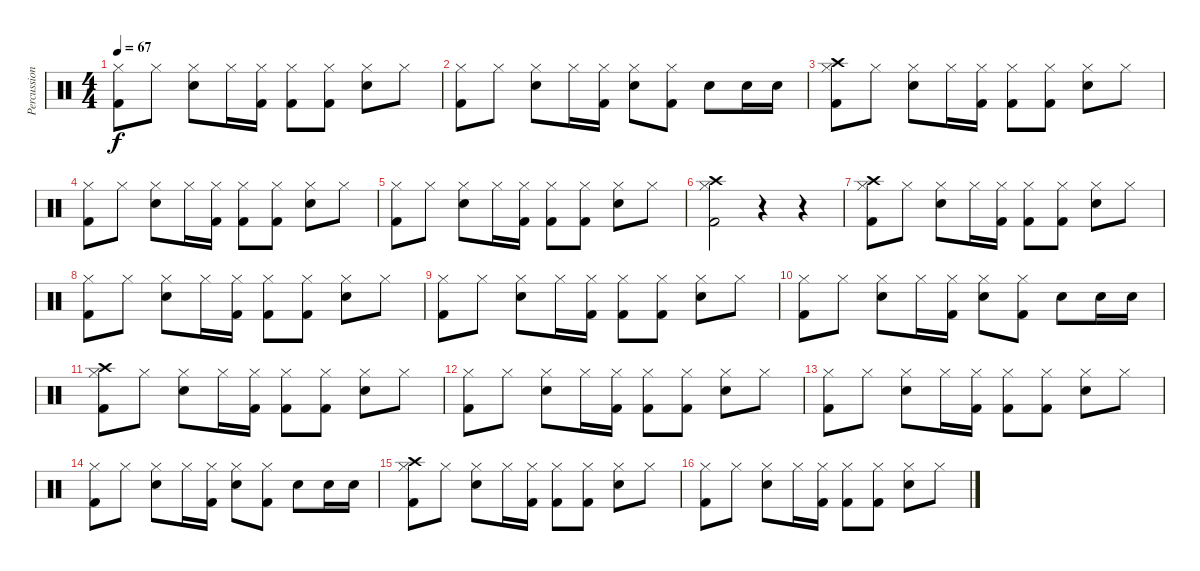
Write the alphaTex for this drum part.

\track ("Percussion" "Percussion") {instrument percussion}
\staff {score}
\articulation defaults
\ts (4 4)
\tempo 67
\clef neutral
\ks c
("Hi-Hat (closed)" "Kick (hit) 2").8{dy f} "Hi-Hat (closed)".8 ("Hi-Hat (closed)" "Snare (hit) 2").8 "Hi-Hat (closed)".16 ("Hi-Hat (closed)" "Kick (hit) 2").16 ("Hi-Hat (closed)" "Kick (hit) 2").8 ("Hi-Hat (closed)" "Kick (hit) 2").8 ("Hi-Hat (closed)" "Snare (hit) 2").8 "Hi-Hat (closed)".8 |
("Hi-Hat (closed)" "Kick (hit) 2").8 "Hi-Hat (closed)".8 ("Snare (hit) 2" "Hi-Hat (closed)").8 "Hi-Hat (closed)".16 ("Hi-Hat (closed)" "Kick (hit) 2").16 ("Hi-Hat (closed)" "Snare (hit) 2").8 ("Hi-Hat (closed)" "Kick (hit) 2").8 "Snare (hit) 2".8 "Snare (hit) 2".16 "Snare (hit) 2".16 |
("Hi-Hat (closed)" "Crash high (hit)" "Kick (hit) 2").8 "Hi-Hat (closed)".8 ("Hi-Hat (closed)" "Snare (hit) 2").8 "Hi-Hat (closed)".16 ("Hi-Hat (closed)" "Kick (hit) 2").16 ("Hi-Hat (closed)" "Kick (hit) 2").8 ("Hi-Hat (closed)" "Kick (hit) 2").8 ("Hi-Hat (closed)" "Snare (hit) 2").8 "Hi-Hat (closed)".8 |
("Hi-Hat (closed)" "Kick (hit) 2").8 "Hi-Hat (closed)".8 ("Hi-Hat (closed)" "Snare (hit) 2").8 "Hi-Hat (closed)".16 ("Hi-Hat (closed)" "Kick (hit) 2").16 ("Hi-Hat (closed)" "Kick (hit) 2").8 ("Hi-Hat (closed)" "Kick (hit) 2").8 ("Hi-Hat (closed)" "Snare (hit) 2").8 "Hi-Hat (closed)".8 |
("Hi-Hat (closed)" "Kick (hit) 2").8 "Hi-Hat (closed)".8 ("Hi-Hat (closed)" "Snare (hit) 2").8 "Hi-Hat (closed)".16 ("Hi-Hat (closed)" "Kick (hit) 2").16 ("Hi-Hat (closed)" "Kick (hit) 2").8 ("Hi-Hat (closed)" "Kick (hit) 2").8 ("Hi-Hat (closed)" "Snare (hit) 2").8 "Hi-Hat (closed)".8 |
("Hi-Hat (closed)" "Crash high (hit)" "Kick (hit) 2").2 r.4 r.4 |
("Hi-Hat (closed)" "Crash high (hit)" "Kick (hit) 2").8 "Hi-Hat (closed)".8 ("Hi-Hat (closed)" "Snare (hit) 2").8 "Hi-Hat (closed)".16 ("Hi-Hat (closed)" "Kick (hit) 2").16 ("Hi-Hat (closed)" "Kick (hit) 2").8 ("Hi-Hat (closed)" "Kick (hit) 2").8 ("Hi-Hat (closed)" "Snare (hit) 2").8 "Hi-Hat (closed)".8 |
("Hi-Hat (closed)" "Kick (hit) 2").8 "Hi-Hat (closed)".8 ("Hi-Hat (closed)" "Snare (hit) 2").8 "Hi-Hat (closed)".16 ("Hi-Hat (closed)" "Kick (hit) 2").16 ("Hi-Hat (closed)" "Kick (hit) 2").8 ("Hi-Hat (closed)" "Kick (hit) 2").8 ("Hi-Hat (closed)" "Snare (hit) 2").8 "Hi-Hat (closed)".8 |
("Hi-Hat (closed)" "Kick (hit) 2").8 "Hi-Hat (closed)".8 ("Hi-Hat (closed)" "Snare (hit) 2").8 "Hi-Hat (closed)".16 ("Hi-Hat (closed)" "Kick (hit) 2").16 ("Hi-Hat (closed)" "Kick (hit) 2").8 ("Hi-Hat (closed)" "Kick (hit) 2").8 ("Hi-Hat (closed)" "Snare (hit) 2").8 "Hi-Hat (closed)".8 |
("Hi-Hat (closed)" "Kick (hit) 2").8 "Hi-Hat (closed)".8 ("Snare (hit) 2" "Hi-Hat (closed)").8 "Hi-Hat (closed)".16 ("Hi-Hat (closed)" "Kick (hit) 2").16 ("Hi-Hat (closed)" "Snare (hit) 2").8 ("Hi-Hat (closed)" "Kick (hit) 2").8 "Snare (hit) 2".8 "Snare (hit) 2".16 "Snare (hit) 2".16 |
("Hi-Hat (closed)" "Crash high (hit)" "Kick (hit) 2").8 "Hi-Hat (closed)".8 ("Hi-Hat (closed)" "Snare (hit) 2").8 "Hi-Hat (closed)".16 ("Hi-Hat (closed)" "Kick (hit) 2").16 ("Hi-Hat (closed)" "Kick (hit) 2").8 ("Hi-Hat (closed)" "Kick (hit) 2").8 ("Hi-Hat (closed)" "Snare (hit) 2").8 "Hi-Hat (closed)".8 |
("Hi-Hat (closed)" "Kick (hit) 2").8 "Hi-Hat (closed)".8 ("Hi-Hat (closed)" "Snare (hit) 2").8 "Hi-Hat (closed)".16 ("Hi-Hat (closed)" "Kick (hit) 2").16 ("Hi-Hat (closed)" "Kick (hit) 2").8 ("Hi-Hat (closed)" "Kick (hit) 2").8 ("Hi-Hat (closed)" "Snare (hit) 2").8 "Hi-Hat (closed)".8 |
("Hi-Hat (closed)" "Kick (hit) 2").8 "Hi-Hat (closed)".8 ("Hi-Hat (closed)" "Snare (hit) 2").8 "Hi-Hat (closed)".16 ("Hi-Hat (closed)" "Kick (hit) 2").16 ("Hi-Hat (closed)" "Kick (hit) 2").8 ("Hi-Hat (closed)" "Kick (hit) 2").8 ("Hi-Hat (closed)" "Snare (hit) 2").8 "Hi-Hat (closed)".8 |
("Hi-Hat (closed)" "Kick (hit) 2").8 "Hi-Hat (closed)".8 ("Snare (hit) 2" "Hi-Hat (closed)").8 "Hi-Hat (closed)".16 ("Hi-Hat (closed)" "Kick (hit) 2").16 ("Hi-Hat (closed)" "Snare (hit) 2").8 ("Hi-Hat (closed)" "Kick (hit) 2").8 "Snare (hit) 2".8 "Snare (hit) 2".16 "Snare (hit) 2".16 |
("Hi-Hat (closed)" "Crash high (hit)" "Kick (hit) 2").8 "Hi-Hat (closed)".8 ("Hi-Hat (closed)" "Snare (hit) 2").8 "Hi-Hat (closed)".16 ("Hi-Hat (closed)" "Kick (hit) 2").16 ("Hi-Hat (closed)" "Kick (hit) 2").8 ("Hi-Hat (closed)" "Kick (hit) 2").8 ("Hi-Hat (closed)" "Snare (hit) 2").8 "Hi-Hat (closed)".8 |
("Hi-Hat (closed)" "Kick (hit) 2").8 "Hi-Hat (closed)".8 ("Hi-Hat (closed)" "Snare (hit) 2").8 "Hi-Hat (closed)".16 ("Hi-Hat (closed)" "Kick (hit) 2").16 ("Hi-Hat (closed)" "Kick (hit) 2").8 ("Hi-Hat (closed)" "Kick (hit) 2").8 ("Hi-Hat (closed)" "Snare (hit) 2").8 "Hi-Hat (closed)".8
